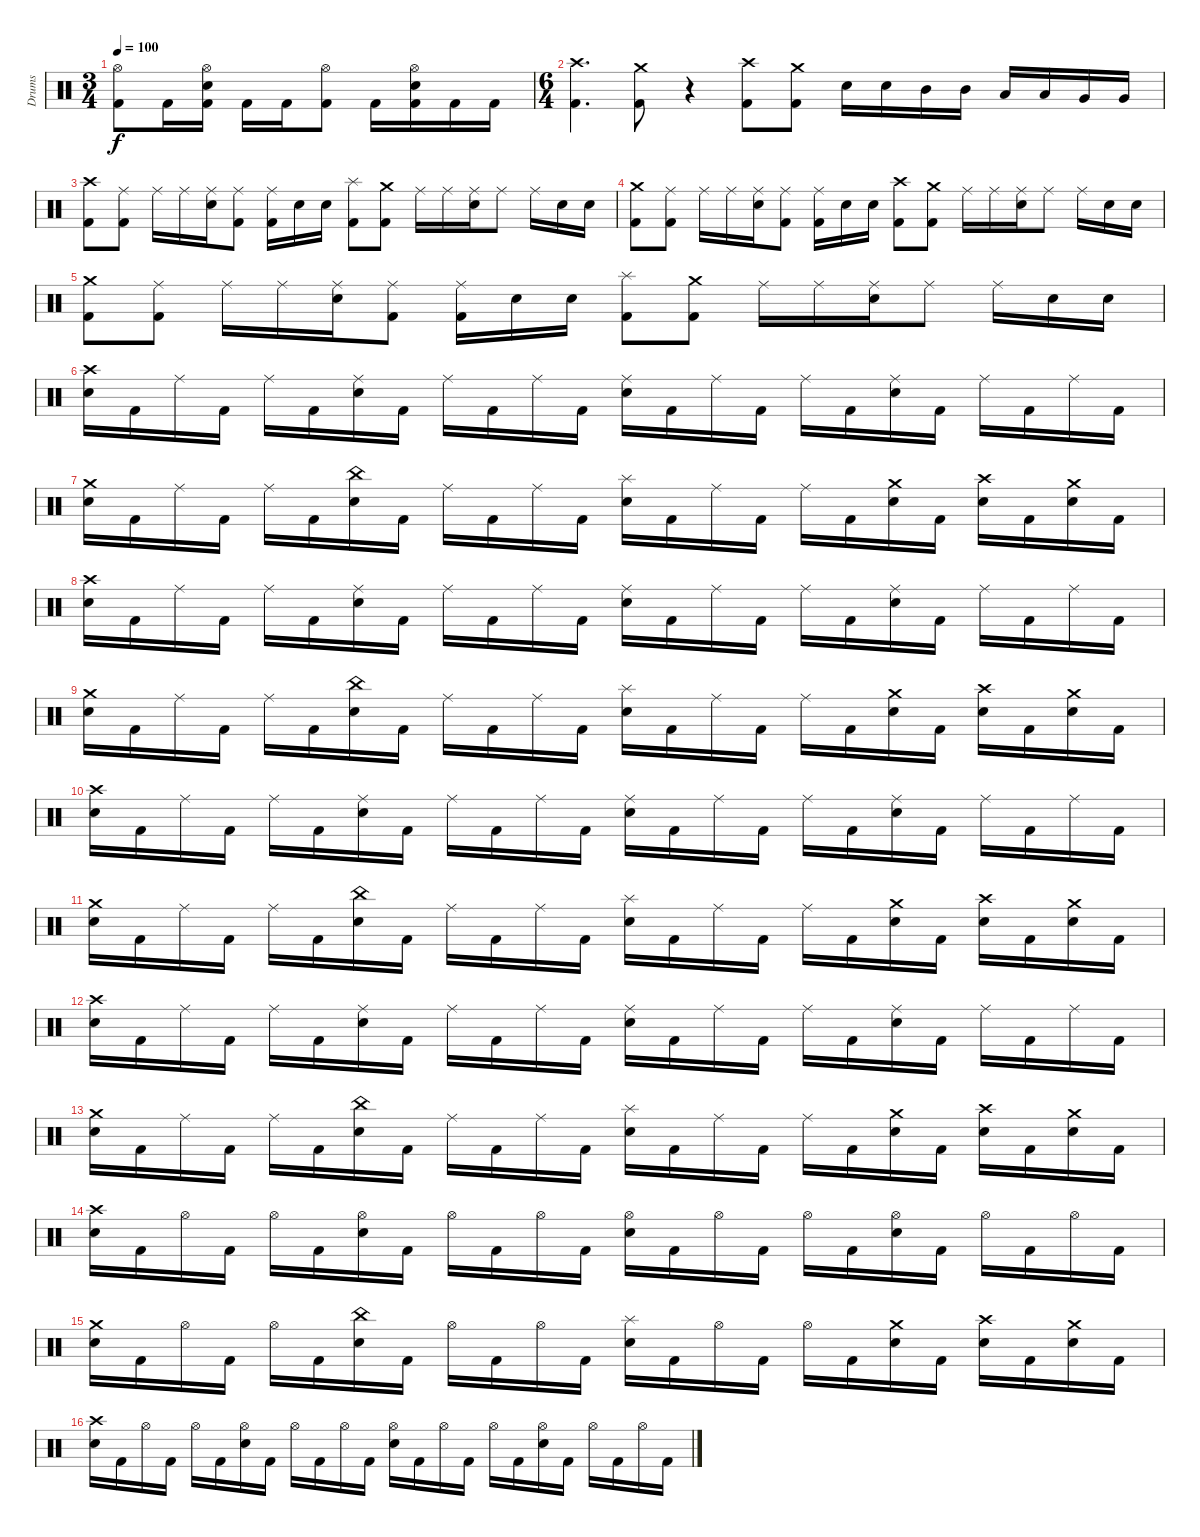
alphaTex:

\track ("Drums" "Drums") {instrument percussion}
\staff {score}
\articulation defaults
\ts (3 4)
\tempo 100
\clef neutral
\ks c
("Hi-Hat (open)" "Kick (hit) 2").8{dy f} "Kick (hit) 2".16 ("Hi-Hat (open)" "Electric Snare (hit)" "Kick (hit) 2").16 "Kick (hit) 2".16 "Kick (hit) 2".16 ("Hi-Hat (open)" "Kick (hit) 2").8 "Kick (hit) 2".16 ("Hi-Hat (open)" "Electric Snare (hit)" "Kick (hit) 2").16 "Kick (hit) 2".16 "Kick (hit) 2".16 |
\ts (6 4)
("Crash high (hit)" "Kick (hit) 2").4{d} ("Crash medium (hit)" "Kick (hit) 2").8 r.4{volume 0} ("Crash high (hit)" "Kick (hit) 2").8{volume 12} ("Crash medium (hit)" "Kick (hit) 2").8 "Electric Snare (hit)".16 "Electric Snare (hit)".16 "Mid Tom (hit)".16 "Mid Tom (hit)".16 "Low Tom (hit)".16 "Low Tom (hit)".16 "Very Low Tom (hit)".16 "Very Low Tom (hit)".16 |
("Crash high (hit)" "Kick (hit) 2").8 ("Ride (middle)" "Kick (hit) 2").8 "Ride (middle)".16 "Ride (middle)".16 ("Ride (middle)" "Electric Snare (hit)").16 ("Ride (middle)" "Kick (hit) 2").8 ("Ride (middle)" "Kick (hit) 2").16 "Electric Snare (hit)".16 "Electric Snare (hit)".16 ("Splash (hit)" "Kick (hit) 2").8 ("Crash medium (hit)" "Kick (hit) 2").8 "Ride (middle)".16 "Ride (middle)".16 ("Ride (middle)" "Electric Snare (hit)").16 "Ride (middle)".8 "Ride (middle)".16 "Electric Snare (hit)".16 "Electric Snare (hit)".16 |
("Crash medium (hit)" "Kick (hit) 2").8 ("Ride (middle)" "Kick (hit) 2").8 "Ride (middle)".16 "Ride (middle)".16 ("Ride (middle)" "Electric Snare (hit)").16 ("Ride (middle)" "Kick (hit) 2").8 ("Ride (middle)" "Kick (hit) 2").16 "Electric Snare (hit)".16 "Electric Snare (hit)".16 ("Crash high (hit)" "Kick (hit) 2").8 ("Crash medium (hit)" "Kick (hit) 2").8 "Ride (middle)".16 "Ride (middle)".16 ("Ride (middle)" "Electric Snare (hit)").16 "Ride (middle)".8 "Ride (middle)".16 "Electric Snare (hit)".16 "Electric Snare (hit)".16 |
("Crash medium (hit)" "Kick (hit) 2").8 ("Ride (middle)" "Kick (hit) 2").8 "Ride (middle)".16 "Ride (middle)".16 ("Ride (middle)" "Electric Snare (hit)").16 ("Ride (middle)" "Kick (hit) 2").8 ("Ride (middle)" "Kick (hit) 2").16 "Electric Snare (hit)".16 "Electric Snare (hit)".16 ("Splash (hit)" "Kick (hit) 2").8 ("Crash medium (hit)" "Kick (hit) 2").8 "Ride (middle)".16 "Ride (middle)".16 ("Ride (middle)" "Electric Snare (hit)").16 "Ride (middle)".8 "Ride (middle)".16 "Electric Snare (hit)".16 "Electric Snare (hit)".16 |
("Crash high (hit)" "Electric Snare (hit)").16 "Kick (hit) 2".16 "Ride (middle)".16 "Kick (hit) 2".16 "Ride (middle)".16 "Kick (hit) 2".16 ("Ride (middle)" "Electric Snare (hit)").16 "Kick (hit) 2".16 "Ride (middle)".16 "Kick (hit) 2".16 "Ride (middle)".16 "Kick (hit) 2".16 ("Ride (middle)" "Electric Snare (hit)").16 "Kick (hit) 2".16 "Ride (middle)".16 "Kick (hit) 2".16 "Ride (middle)".16 "Kick (hit) 2".16 ("Ride (middle)" "Electric Snare (hit)").16 "Kick (hit) 2".16 "Ride (middle)".16 "Kick (hit) 2".16 "Ride (middle)".16 "Kick (hit) 2".16 |
("Crash medium (hit)" "Electric Snare (hit)").16 "Kick (hit) 2".16 "Ride (middle)".16 "Kick (hit) 2".16 "Ride (middle)".16 "Kick (hit) 2".16 ("China (hit)" "Electric Snare (hit)").16 "Kick (hit) 2".16 "Ride (middle)".16 "Kick (hit) 2".16 "Ride (middle)".16 "Kick (hit) 2".16 ("Splash (hit)" "Electric Snare (hit)").16 "Kick (hit) 2".16 "Ride (middle)".16 "Kick (hit) 2".16 "Ride (middle)".16 "Kick (hit) 2".16 ("Crash medium (hit)" "Electric Snare (hit)").16 "Kick (hit) 2".16 ("Crash high (hit)" "Electric Snare (hit)").16 "Kick (hit) 2".16 ("Crash medium (hit)" "Electric Snare (hit)").16 "Kick (hit) 2".16 |
("Crash high (hit)" "Electric Snare (hit)").16 "Kick (hit) 2".16 "Ride (middle)".16 "Kick (hit) 2".16 "Ride (middle)".16 "Kick (hit) 2".16 ("Ride (middle)" "Electric Snare (hit)").16 "Kick (hit) 2".16 "Ride (middle)".16 "Kick (hit) 2".16 "Ride (middle)".16 "Kick (hit) 2".16 ("Ride (middle)" "Electric Snare (hit)").16 "Kick (hit) 2".16 "Ride (middle)".16 "Kick (hit) 2".16 "Ride (middle)".16 "Kick (hit) 2".16 ("Ride (middle)" "Electric Snare (hit)").16 "Kick (hit) 2".16 "Ride (middle)".16 "Kick (hit) 2".16 "Ride (middle)".16 "Kick (hit) 2".16 |
("Crash medium (hit)" "Electric Snare (hit)").16 "Kick (hit) 2".16 "Ride (middle)".16 "Kick (hit) 2".16 "Ride (middle)".16 "Kick (hit) 2".16 ("China (hit)" "Electric Snare (hit)").16 "Kick (hit) 2".16 "Ride (middle)".16 "Kick (hit) 2".16 "Ride (middle)".16 "Kick (hit) 2".16 ("Splash (hit)" "Electric Snare (hit)").16 "Kick (hit) 2".16 "Ride (middle)".16 "Kick (hit) 2".16 "Ride (middle)".16 "Kick (hit) 2".16 ("Crash medium (hit)" "Electric Snare (hit)").16 "Kick (hit) 2".16 ("Crash high (hit)" "Electric Snare (hit)").16 "Kick (hit) 2".16 ("Crash medium (hit)" "Electric Snare (hit)").16 "Kick (hit) 2".16 |
("Crash high (hit)" "Electric Snare (hit)").16 "Kick (hit) 2".16 "Ride (middle)".16 "Kick (hit) 2".16 "Ride (middle)".16 "Kick (hit) 2".16 ("Ride (middle)" "Electric Snare (hit)").16 "Kick (hit) 2".16 "Ride (middle)".16 "Kick (hit) 2".16 "Ride (middle)".16 "Kick (hit) 2".16 ("Ride (middle)" "Electric Snare (hit)").16 "Kick (hit) 2".16 "Ride (middle)".16 "Kick (hit) 2".16 "Ride (middle)".16 "Kick (hit) 2".16 ("Ride (middle)" "Electric Snare (hit)").16 "Kick (hit) 2".16 "Ride (middle)".16 "Kick (hit) 2".16 "Ride (middle)".16 "Kick (hit) 2".16 |
("Crash medium (hit)" "Electric Snare (hit)").16 "Kick (hit) 2".16 "Ride (middle)".16 "Kick (hit) 2".16 "Ride (middle)".16 "Kick (hit) 2".16 ("China (hit)" "Electric Snare (hit)").16 "Kick (hit) 2".16 "Ride (middle)".16 "Kick (hit) 2".16 "Ride (middle)".16 "Kick (hit) 2".16 ("Splash (hit)" "Electric Snare (hit)").16 "Kick (hit) 2".16 "Ride (middle)".16 "Kick (hit) 2".16 "Ride (middle)".16 "Kick (hit) 2".16 ("Crash medium (hit)" "Electric Snare (hit)").16 "Kick (hit) 2".16 ("Crash high (hit)" "Electric Snare (hit)").16 "Kick (hit) 2".16 ("Crash medium (hit)" "Electric Snare (hit)").16 "Kick (hit) 2".16 |
("Crash high (hit)" "Electric Snare (hit)").16 "Kick (hit) 2".16 "Ride (middle)".16 "Kick (hit) 2".16 "Ride (middle)".16 "Kick (hit) 2".16 ("Ride (middle)" "Electric Snare (hit)").16 "Kick (hit) 2".16 "Ride (middle)".16 "Kick (hit) 2".16 "Ride (middle)".16 "Kick (hit) 2".16 ("Ride (middle)" "Electric Snare (hit)").16 "Kick (hit) 2".16 "Ride (middle)".16 "Kick (hit) 2".16 "Ride (middle)".16 "Kick (hit) 2".16 ("Ride (middle)" "Electric Snare (hit)").16 "Kick (hit) 2".16 "Ride (middle)".16 "Kick (hit) 2".16 "Ride (middle)".16 "Kick (hit) 2".16 |
("Crash medium (hit)" "Electric Snare (hit)").16 "Kick (hit) 2".16 "Ride (middle)".16 "Kick (hit) 2".16 "Ride (middle)".16 "Kick (hit) 2".16 ("China (hit)" "Electric Snare (hit)").16 "Kick (hit) 2".16 "Ride (middle)".16 "Kick (hit) 2".16 "Ride (middle)".16 "Kick (hit) 2".16 ("Splash (hit)" "Electric Snare (hit)").16 "Kick (hit) 2".16 "Ride (middle)".16 "Kick (hit) 2".16 "Ride (middle)".16 "Kick (hit) 2".16 ("Crash medium (hit)" "Electric Snare (hit)").16 "Kick (hit) 2".16 ("Crash high (hit)" "Electric Snare (hit)").16 "Kick (hit) 2".16 ("Crash medium (hit)" "Electric Snare (hit)").16 "Kick (hit) 2".16 |
("Crash high (hit)" "Electric Snare (hit)").16 "Kick (hit) 2".16 "Hi-Hat (open)".16 "Kick (hit) 2".16 "Hi-Hat (open)".16 "Kick (hit) 2".16 ("Hi-Hat (open)" "Electric Snare (hit)").16 "Kick (hit) 2".16 "Hi-Hat (open)".16 "Kick (hit) 2".16 "Hi-Hat (open)".16 "Kick (hit) 2".16 ("Hi-Hat (open)" "Electric Snare (hit)").16 "Kick (hit) 2".16 "Hi-Hat (open)".16 "Kick (hit) 2".16 "Hi-Hat (open)".16 "Kick (hit) 2".16 ("Hi-Hat (open)" "Electric Snare (hit)").16 "Kick (hit) 2".16 "Hi-Hat (open)".16 "Kick (hit) 2".16 "Hi-Hat (open)".16 "Kick (hit) 2".16 |
("Crash medium (hit)" "Electric Snare (hit)").16 "Kick (hit) 2".16 "Hi-Hat (open)".16 "Kick (hit) 2".16 "Hi-Hat (open)".16 "Kick (hit) 2".16 ("China (hit)" "Electric Snare (hit)").16 "Kick (hit) 2".16 "Hi-Hat (open)".16 "Kick (hit) 2".16 "Hi-Hat (open)".16 "Kick (hit) 2".16 ("Splash (hit)" "Electric Snare (hit)").16 "Kick (hit) 2".16 "Hi-Hat (open)".16 "Kick (hit) 2".16 "Hi-Hat (open)".16 "Kick (hit) 2".16 ("Crash medium (hit)" "Electric Snare (hit)").16 "Kick (hit) 2".16 ("Crash high (hit)" "Electric Snare (hit)").16 "Kick (hit) 2".16 ("Crash medium (hit)" "Electric Snare (hit)").16 "Kick (hit) 2".16 |
("Crash high (hit)" "Electric Snare (hit)").16 "Kick (hit) 2".16 "Hi-Hat (open)".16 "Kick (hit) 2".16 "Hi-Hat (open)".16 "Kick (hit) 2".16 ("Hi-Hat (open)" "Electric Snare (hit)").16 "Kick (hit) 2".16 "Hi-Hat (open)".16 "Kick (hit) 2".16 "Hi-Hat (open)".16 "Kick (hit) 2".16 ("Hi-Hat (open)" "Electric Snare (hit)").16 "Kick (hit) 2".16 "Hi-Hat (open)".16 "Kick (hit) 2".16 "Hi-Hat (open)".16 "Kick (hit) 2".16 ("Hi-Hat (open)" "Electric Snare (hit)").16 "Kick (hit) 2".16 "Hi-Hat (open)".16 "Kick (hit) 2".16 "Hi-Hat (open)".16 "Kick (hit) 2".16
